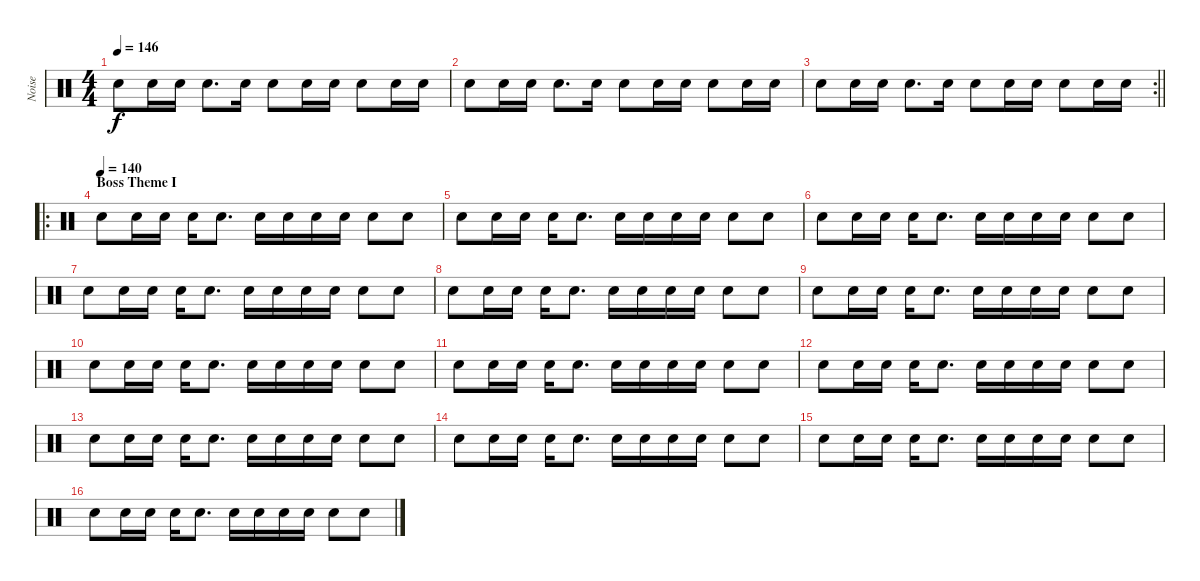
\track ("Noise" "Noise") {instrument percussion}
\staff {score}
\articulation defaults
\ts (4 4)
\tempo 146
\clef neutral
\ks c "Snare (hit) 2".8{dy f} "Snare (hit) 2".16 "Snare (hit) 2".16 "Snare (hit) 2".8{d} "Snare (hit) 2".16 "Snare (hit) 2".8 "Snare (hit) 2".16 "Snare (hit) 2".16 "Snare (hit) 2".8 "Snare (hit) 2".16 "Snare (hit) 2".16
|
"Snare (hit) 2".8 "Snare (hit) 2".16 "Snare (hit) 2".16 "Snare (hit) 2".8{d} "Snare (hit) 2".16 "Snare (hit) 2".8 "Snare (hit) 2".16 "Snare (hit) 2".16 "Snare (hit) 2".8 "Snare (hit) 2".16 "Snare (hit) 2".16 |
\rc 2
\barLineRight lightlight "Snare (hit) 2".8 "Snare (hit) 2".16 "Snare (hit) 2".16 "Snare (hit) 2".8{d} "Snare (hit) 2".16 "Snare (hit) 2".8 "Snare (hit) 2".16 "Snare (hit) 2".16 "Snare (hit) 2".8 "Snare (hit) 2".16 "Snare (hit) 2".16
|
\ro
\section ("" "Boss Theme I")
\tempo (140)
"Snare (hit) 2".8{volume 13} "Snare (hit) 2".16 "Snare (hit) 2".16 "Snare (hit) 2".16 "Snare (hit) 2".8{d} "Snare (hit) 2".16 "Snare (hit) 2".16 "Snare (hit) 2".16 "Snare (hit) 2".16 "Snare (hit) 2".8 "Snare (hit) 2".8 |
"Snare (hit) 2".8 "Snare (hit) 2".16 "Snare (hit) 2".16 "Snare (hit) 2".16 "Snare (hit) 2".8{d} "Snare (hit) 2".16 "Snare (hit) 2".16 "Snare (hit) 2".16 "Snare (hit) 2".16 "Snare (hit) 2".8 "Snare (hit) 2".8 |
"Snare (hit) 2".8 "Snare (hit) 2".16 "Snare (hit) 2".16 "Snare (hit) 2".16 "Snare (hit) 2".8{d} "Snare (hit) 2".16 "Snare (hit) 2".16 "Snare (hit) 2".16 "Snare (hit) 2".16 "Snare (hit) 2".8 "Snare (hit) 2".8 |
"Snare (hit) 2".8 "Snare (hit) 2".16 "Snare (hit) 2".16 "Snare (hit) 2".16 "Snare (hit) 2".8{d} "Snare (hit) 2".16 "Snare (hit) 2".16 "Snare (hit) 2".16 "Snare (hit) 2".16 "Snare (hit) 2".8 "Snare (hit) 2".8 |
"Snare (hit) 2".8 "Snare (hit) 2".16 "Snare (hit) 2".16 "Snare (hit) 2".16 "Snare (hit) 2".8{d} "Snare (hit) 2".16 "Snare (hit) 2".16 "Snare (hit) 2".16 "Snare (hit) 2".16 "Snare (hit) 2".8 "Snare (hit) 2".8 |
"Snare (hit) 2".8 "Snare (hit) 2".16 "Snare (hit) 2".16 "Snare (hit) 2".16 "Snare (hit) 2".8{d} "Snare (hit) 2".16 "Snare (hit) 2".16 "Snare (hit) 2".16 "Snare (hit) 2".16 "Snare (hit) 2".8 "Snare (hit) 2".8 |
"Snare (hit) 2".8 "Snare (hit) 2".16 "Snare (hit) 2".16 "Snare (hit) 2".16 "Snare (hit) 2".8{d} "Snare (hit) 2".16 "Snare (hit) 2".16 "Snare (hit) 2".16 "Snare (hit) 2".16 "Snare (hit) 2".8 "Snare (hit) 2".8 |
"Snare (hit) 2".8 "Snare (hit) 2".16 "Snare (hit) 2".16 "Snare (hit) 2".16 "Snare (hit) 2".8{d} "Snare (hit) 2".16 "Snare (hit) 2".16 "Snare (hit) 2".16 "Snare (hit) 2".16 "Snare (hit) 2".8 "Snare (hit) 2".8 |
"Snare (hit) 2".8 "Snare (hit) 2".16 "Snare (hit) 2".16 "Snare (hit) 2".16 "Snare (hit) 2".8{d} "Snare (hit) 2".16 "Snare (hit) 2".16 "Snare (hit) 2".16 "Snare (hit) 2".16 "Snare (hit) 2".8 "Snare (hit) 2".8 |
"Snare (hit) 2".8 "Snare (hit) 2".16 "Snare (hit) 2".16 "Snare (hit) 2".16 "Snare (hit) 2".8{d} "Snare (hit) 2".16 "Snare (hit) 2".16 "Snare (hit) 2".16 "Snare (hit) 2".16 "Snare (hit) 2".8 "Snare (hit) 2".8 |
"Snare (hit) 2".8 "Snare (hit) 2".16 "Snare (hit) 2".16 "Snare (hit) 2".16 "Snare (hit) 2".8{d} "Snare (hit) 2".16 "Snare (hit) 2".16 "Snare (hit) 2".16 "Snare (hit) 2".16 "Snare (hit) 2".8 "Snare (hit) 2".8 |
"Snare (hit) 2".8 "Snare (hit) 2".16 "Snare (hit) 2".16 "Snare (hit) 2".16 "Snare (hit) 2".8{d} "Snare (hit) 2".16 "Snare (hit) 2".16 "Snare (hit) 2".16 "Snare (hit) 2".16 "Snare (hit) 2".8 "Snare (hit) 2".8 |
"Snare (hit) 2".8 "Snare (hit) 2".16 "Snare (hit) 2".16 "Snare (hit) 2".16 "Snare (hit) 2".8{d} "Snare (hit) 2".16 "Snare (hit) 2".16 "Snare (hit) 2".16 "Snare (hit) 2".16 "Snare (hit) 2".8 "Snare (hit) 2".8
